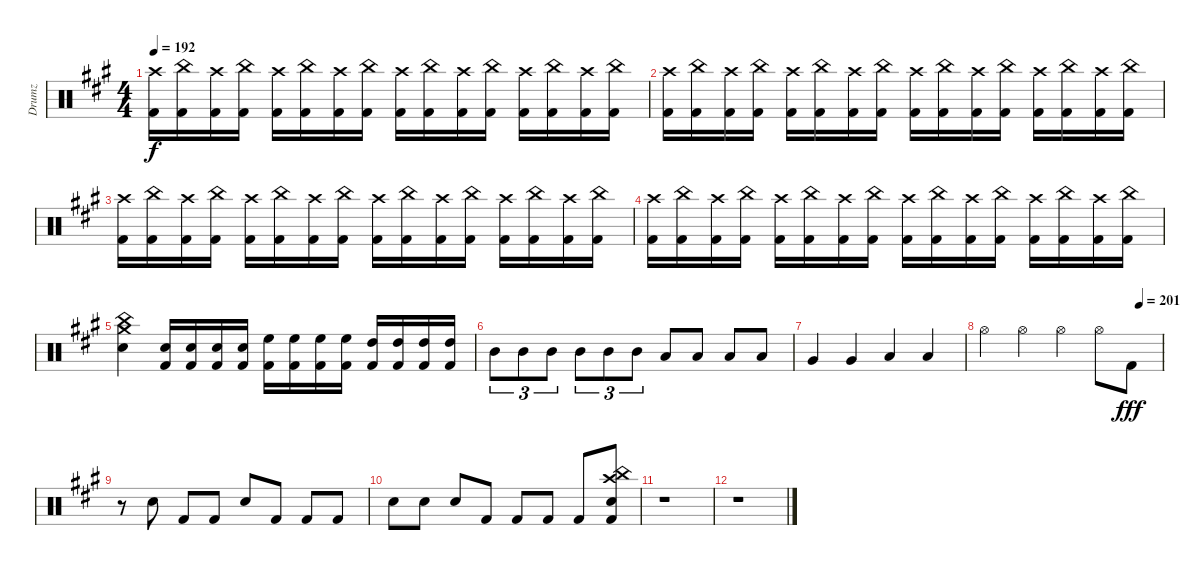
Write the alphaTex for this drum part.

\track ("Drumz" "Drumz") {instrument percussion}
\staff {score}
\articulation defaults
\ts (4 4)
\tempo 192
\clef neutral
\ks a
("Kick (hit) 2" "Crash high (hit)").16{dy f} ("Kick (hit) 2" "China (hit)").16 ("Kick (hit) 2" "Crash high (hit)").16 ("Kick (hit) 2" "China (hit)").16 ("Kick (hit) 2" "Crash high (hit)").16 ("Kick (hit) 2" "China (hit)").16 ("Kick (hit) 2" "Crash high (hit)").16 ("Kick (hit) 2" "China (hit)").16 ("Kick (hit) 2" "Crash high (hit)").16 ("Kick (hit) 2" "China (hit)").16 ("Kick (hit) 2" "Crash high (hit)").16 ("Kick (hit) 2" "China (hit)").16 ("Kick (hit) 2" "Crash high (hit)").16 ("Kick (hit) 2" "China (hit)").16 ("Kick (hit) 2" "Crash high (hit)").16 ("Kick (hit) 2" "China (hit)").16 |
("Kick (hit) 2" "Crash high (hit)").16 ("Kick (hit) 2" "China (hit)").16 ("Kick (hit) 2" "Crash high (hit)").16 ("Kick (hit) 2" "China (hit)").16 ("Kick (hit) 2" "Crash high (hit)").16 ("Kick (hit) 2" "China (hit)").16 ("Kick (hit) 2" "Crash high (hit)").16 ("Kick (hit) 2" "China (hit)").16 ("Kick (hit) 2" "Crash high (hit)").16 ("Kick (hit) 2" "China (hit)").16 ("Kick (hit) 2" "Crash high (hit)").16 ("Kick (hit) 2" "China (hit)").16 ("Kick (hit) 2" "Crash high (hit)").16 ("Kick (hit) 2" "China (hit)").16 ("Kick (hit) 2" "Crash high (hit)").16 ("Kick (hit) 2" "China (hit)").16 |
("Kick (hit) 2" "Crash high (hit)").16 ("Kick (hit) 2" "China (hit)").16 ("Kick (hit) 2" "Crash high (hit)").16 ("Kick (hit) 2" "China (hit)").16 ("Kick (hit) 2" "Crash high (hit)").16 ("Kick (hit) 2" "China (hit)").16 ("Kick (hit) 2" "Crash high (hit)").16 ("Kick (hit) 2" "China (hit)").16 ("Kick (hit) 2" "Crash high (hit)").16 ("Kick (hit) 2" "China (hit)").16 ("Kick (hit) 2" "Crash high (hit)").16 ("Kick (hit) 2" "China (hit)").16 ("Kick (hit) 2" "Crash high (hit)").16 ("Kick (hit) 2" "China (hit)").16 ("Kick (hit) 2" "Crash high (hit)").16 ("Kick (hit) 2" "China (hit)").16 |
("Kick (hit) 2" "Crash high (hit)").16 ("Kick (hit) 2" "China (hit)").16 ("Kick (hit) 2" "Crash high (hit)").16 ("Kick (hit) 2" "China (hit)").16 ("Kick (hit) 2" "Crash high (hit)").16 ("Kick (hit) 2" "China (hit)").16 ("Kick (hit) 2" "Crash high (hit)").16 ("Kick (hit) 2" "China (hit)").16 ("Kick (hit) 2" "Crash high (hit)").16 ("Kick (hit) 2" "China (hit)").16 ("Kick (hit) 2" "Crash high (hit)").16 ("Kick (hit) 2" "China (hit)").16 ("Kick (hit) 2" "Crash high (hit)").16 ("Kick (hit) 2" "China (hit)").16 ("Kick (hit) 2" "Crash high (hit)").16 ("Kick (hit) 2" "China (hit)").16 |
("Snare (hit) 2" "China (hit)" "Crash medium (hit)").4 ("Kick (hit) 2" "Snare (hit) 2").16 ("Kick (hit) 2" "Snare (hit) 2").16 ("Kick (hit) 2" "Snare (hit) 2").16 ("Kick (hit) 2" "Snare (hit) 2").16 ("Kick (hit) 2" "High Floor Tom (hit)").16 ("Kick (hit) 2" "High Floor Tom (hit)").16 ("Kick (hit) 2" "High Floor Tom (hit)").16 ("Kick (hit) 2" "High Floor Tom (hit)").16 ("Kick (hit) 2" "High Tom (hit)").16 ("Kick (hit) 2" "High Tom (hit)").16 ("Kick (hit) 2" "High Tom (hit)").16 ("Kick (hit) 2" "High Tom (hit)").16 |
"Mid Tom (hit)".8{tu (3 2)} "Mid Tom (hit)".8{tu (3 2)} "Mid Tom (hit)".8{tu (3 2)} "Mid Tom (hit)".8{tu (3 2)} "Mid Tom (hit)".8{tu (3 2)} "Mid Tom (hit)".8{tu (3 2)} "Low Tom (hit)".8 "Low Tom (hit)".8 "Low Tom (hit)".8 "Low Tom (hit)".8 |
"Very Low Tom (hit)".4 "Very Low Tom (hit)".4 "Low Floor Tom (hit)".4 "Low Floor Tom (hit)".4 |
\tempo (201 0.875)
"Hi-Hat (open)".4 "Hi-Hat (open)".4 "Hi-Hat (open)".4 "Hi-Hat (open)".8 "Kick (hit) 2".8{dy fff} |
r.8 "Snare (hit) 2".8 "Kick (hit) 2".8 "Kick (hit) 2".8 "Snare (hit) 2".8 "Kick (hit) 2".8 "Kick (hit) 2".8 "Kick (hit) 2".8 |
"Snare (hit) 2".8 "Snare (hit) 2".8 "Snare (hit) 2".8 "Kick (hit) 2".8 "Kick (hit) 2".8 "Kick (hit) 2".8 "Kick (hit) 2".8 ("Kick (hit) 2" "Snare (hit) 2" "Crash high (hit)" "China (hit)").8 |
r.1 |
r.1
